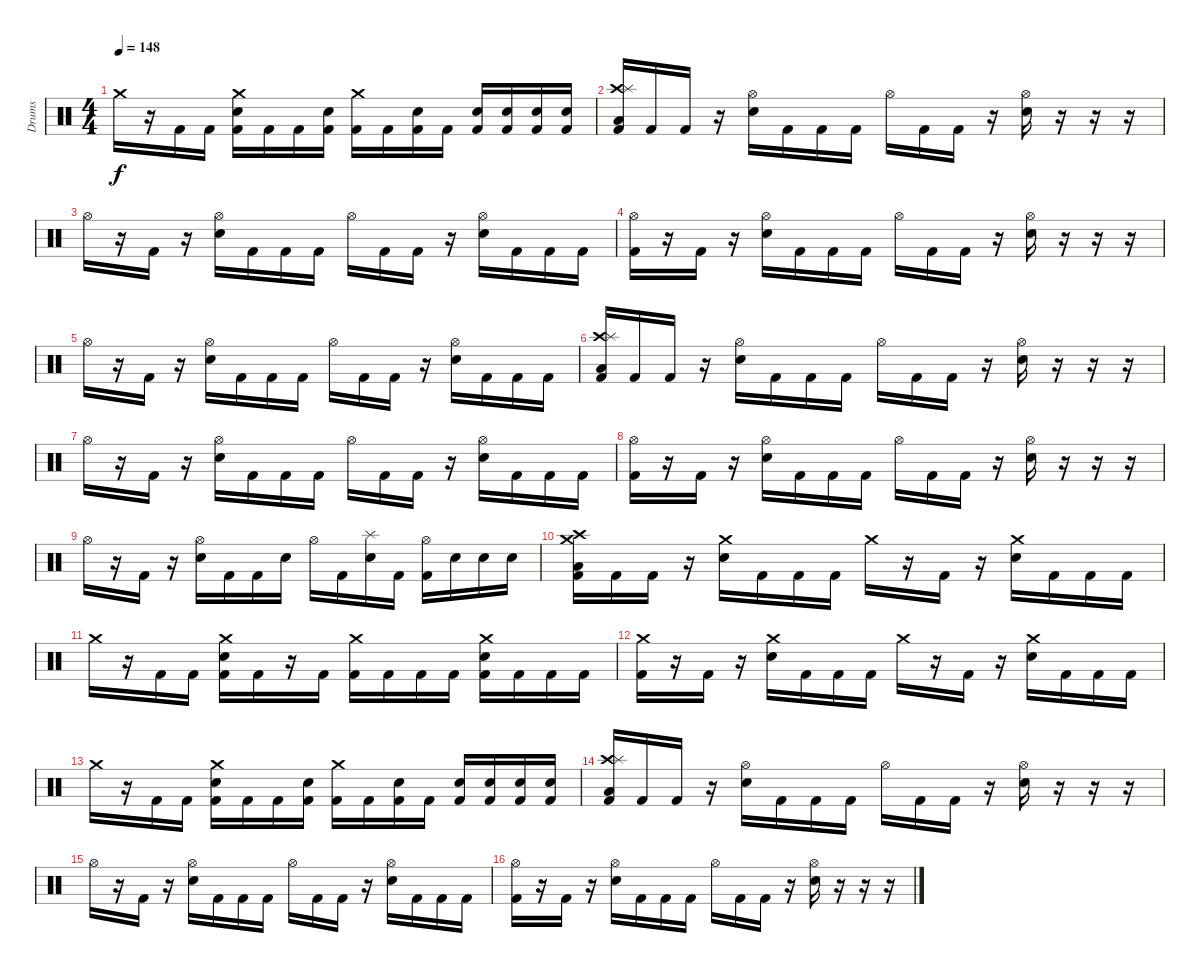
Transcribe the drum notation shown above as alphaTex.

\track ("Drums" "Drums") {instrument percussion}
\staff {score}
\articulation defaults
\ts (4 4)
\tempo 148
\clef neutral
\ks c "Crash medium (hit)".16{dy f}
r.16 "Kick (hit) 2".16 "Kick (hit) 2".16 ("Crash medium (hit)" "Electric Snare (hit)" "Kick (hit) 2").16 "Kick (hit) 2".16 "Kick (hit) 2".16 ("Electric Snare (hit)" "Kick (hit) 2").16 ("Crash medium (hit)" "Kick (hit) 2").16 "Kick (hit) 2".16 ("Electric Snare (hit)" "Kick (hit) 2").16 "Kick (hit) 2".16 ("Electric Snare (hit)" "Kick (hit) 2").16 ("Electric Snare (hit)" "Kick (hit) 2").16 ("Electric Snare (hit)" "Kick (hit) 2").16 ("Electric Snare (hit)" "Kick (hit) 2").16 |
("Crash high (hit)" "Splash (hit)" "Low Floor Tom (hit)" "Kick (hit) 2").16 "Kick (hit) 2".16 "Kick (hit) 2".16 r.16 ("Hi-Hat (open)" "Electric Snare (hit)").16 "Kick (hit) 2".16 "Kick (hit) 2".16 "Kick (hit) 2".16 "Hi-Hat (open)".16 "Kick (hit) 2".16 "Kick (hit) 2".16 r.16 ("Hi-Hat (open)" "Electric Snare (hit)").16 r.16 r.16 r.16 |
"Hi-Hat (open)".16 r.16 "Kick (hit) 2".16 r.16 ("Hi-Hat (open)" "Electric Snare (hit)").16 "Kick (hit) 2".16 "Kick (hit) 2".16 "Kick (hit) 2".16 "Hi-Hat (open)".16 "Kick (hit) 2".16 "Kick (hit) 2".16 r.16 ("Hi-Hat (open)" "Electric Snare (hit)").16 "Kick (hit) 2".16 "Kick (hit) 2".16 "Kick (hit) 2".16 |
("Hi-Hat (open)" "Kick (hit) 2").16 r.16 "Kick (hit) 2".16 r.16 ("Hi-Hat (open)" "Electric Snare (hit)").16 "Kick (hit) 2".16 "Kick (hit) 2".16 "Kick (hit) 2".16 "Hi-Hat (open)".16 "Kick (hit) 2".16 "Kick (hit) 2".16 r.16 ("Hi-Hat (open)" "Electric Snare (hit)").16 r.16 r.16 r.16 |
"Hi-Hat (open)".16 r.16 "Kick (hit) 2".16 r.16 ("Hi-Hat (open)" "Electric Snare (hit)").16 "Kick (hit) 2".16 "Kick (hit) 2".16 "Kick (hit) 2".16 "Hi-Hat (open)".16 "Kick (hit) 2".16 "Kick (hit) 2".16 r.16 ("Hi-Hat (open)" "Electric Snare (hit)").16 "Kick (hit) 2".16 "Kick (hit) 2".16 "Kick (hit) 2".16 |
("Crash high (hit)" "Splash (hit)" "Low Floor Tom (hit)" "Kick (hit) 2").16 "Kick (hit) 2".16 "Kick (hit) 2".16 r.16 ("Hi-Hat (open)" "Electric Snare (hit)").16 "Kick (hit) 2".16 "Kick (hit) 2".16 "Kick (hit) 2".16 "Hi-Hat (open)".16 "Kick (hit) 2".16 "Kick (hit) 2".16 r.16 ("Hi-Hat (open)" "Electric Snare (hit)").16 r.16 r.16 r.16 |
"Hi-Hat (open)".16 r.16 "Kick (hit) 2".16 r.16 ("Hi-Hat (open)" "Electric Snare (hit)").16 "Kick (hit) 2".16 "Kick (hit) 2".16 "Kick (hit) 2".16 "Hi-Hat (open)".16 "Kick (hit) 2".16 "Kick (hit) 2".16 r.16 ("Hi-Hat (open)" "Electric Snare (hit)").16 "Kick (hit) 2".16 "Kick (hit) 2".16 "Kick (hit) 2".16 |
("Hi-Hat (open)" "Kick (hit) 2").16 r.16 "Kick (hit) 2".16 r.16 ("Hi-Hat (open)" "Electric Snare (hit)").16 "Kick (hit) 2".16 "Kick (hit) 2".16 "Kick (hit) 2".16 "Hi-Hat (open)".16 "Kick (hit) 2".16 "Kick (hit) 2".16 r.16 ("Hi-Hat (open)" "Electric Snare (hit)").16 r.16 r.16 r.16 |
"Hi-Hat (open)".16 r.16 "Kick (hit) 2".16 r.16 ("Hi-Hat (open)" "Electric Snare (hit)").16 "Kick (hit) 2".16 "Kick (hit) 2".16 "Electric Snare (hit)".16 "Hi-Hat (open)".16 "Kick (hit) 2".16 ("Splash (hit)" "Electric Snare (hit)").16 "Kick (hit) 2".16 ("Hi-Hat (open)" "Kick (hit) 2").16 "Electric Snare (hit)".16 "Electric Snare (hit)".16 "Electric Snare (hit)".16 |
("Crash high (hit)" "Crash medium (hit)" "Low Floor Tom (hit)" "Kick (hit) 2").16 "Kick (hit) 2".16 "Kick (hit) 2".16 r.16 ("Crash medium (hit)" "Electric Snare (hit)").16 "Kick (hit) 2".16 "Kick (hit) 2".16 "Kick (hit) 2".16 "Crash medium (hit)".16 r.16 "Kick (hit) 2".16 r.16 ("Crash medium (hit)" "Electric Snare (hit)").16 "Kick (hit) 2".16 "Kick (hit) 2".16 "Kick (hit) 2".16 |
"Crash medium (hit)".16 r.16 "Kick (hit) 2".16 "Kick (hit) 2".16 ("Crash medium (hit)" "Electric Snare (hit)" "Kick (hit) 2").16 "Kick (hit) 2".16 r.16 "Kick (hit) 2".16 ("Crash medium (hit)" "Kick (hit) 2").16 "Kick (hit) 2".16 "Kick (hit) 2".16 "Kick (hit) 2".16 ("Crash medium (hit)" "Electric Snare (hit)" "Kick (hit) 2").16 "Kick (hit) 2".16 "Kick (hit) 2".16 "Kick (hit) 2".16 |
("Crash medium (hit)" "Kick (hit) 2").16 r.16 "Kick (hit) 2".16 r.16 ("Crash medium (hit)" "Electric Snare (hit)").16 "Kick (hit) 2".16 "Kick (hit) 2".16 "Kick (hit) 2".16 "Crash medium (hit)".16 r.16 "Kick (hit) 2".16 r.16 ("Crash medium (hit)" "Electric Snare (hit)").16 "Kick (hit) 2".16 "Kick (hit) 2".16 "Kick (hit) 2".16 |
"Crash medium (hit)".16 r.16 "Kick (hit) 2".16 "Kick (hit) 2".16 ("Crash medium (hit)" "Electric Snare (hit)" "Kick (hit) 2").16 "Kick (hit) 2".16 "Kick (hit) 2".16 ("Electric Snare (hit)" "Kick (hit) 2").16 ("Crash medium (hit)" "Kick (hit) 2").16 "Kick (hit) 2".16 ("Electric Snare (hit)" "Kick (hit) 2").16 "Kick (hit) 2".16 ("Electric Snare (hit)" "Kick (hit) 2").16 ("Electric Snare (hit)" "Kick (hit) 2").16 ("Electric Snare (hit)" "Kick (hit) 2").16 ("Electric Snare (hit)" "Kick (hit) 2").16 |
("Crash high (hit)" "Splash (hit)" "Low Floor Tom (hit)" "Kick (hit) 2").16 "Kick (hit) 2".16 "Kick (hit) 2".16 r.16 ("Hi-Hat (open)" "Electric Snare (hit)").16 "Kick (hit) 2".16 "Kick (hit) 2".16 "Kick (hit) 2".16 "Hi-Hat (open)".16 "Kick (hit) 2".16 "Kick (hit) 2".16 r.16 ("Hi-Hat (open)" "Electric Snare (hit)").16 r.16 r.16 r.16 |
"Hi-Hat (open)".16 r.16 "Kick (hit) 2".16 r.16 ("Hi-Hat (open)" "Electric Snare (hit)").16 "Kick (hit) 2".16 "Kick (hit) 2".16 "Kick (hit) 2".16 "Hi-Hat (open)".16 "Kick (hit) 2".16 "Kick (hit) 2".16 r.16 ("Hi-Hat (open)" "Electric Snare (hit)").16 "Kick (hit) 2".16 "Kick (hit) 2".16 "Kick (hit) 2".16 |
("Hi-Hat (open)" "Kick (hit) 2").16 r.16 "Kick (hit) 2".16 r.16 ("Hi-Hat (open)" "Electric Snare (hit)").16 "Kick (hit) 2".16 "Kick (hit) 2".16 "Kick (hit) 2".16 "Hi-Hat (open)".16 "Kick (hit) 2".16 "Kick (hit) 2".16 r.16 ("Hi-Hat (open)" "Electric Snare (hit)").16 r.16 r.16 r.16
